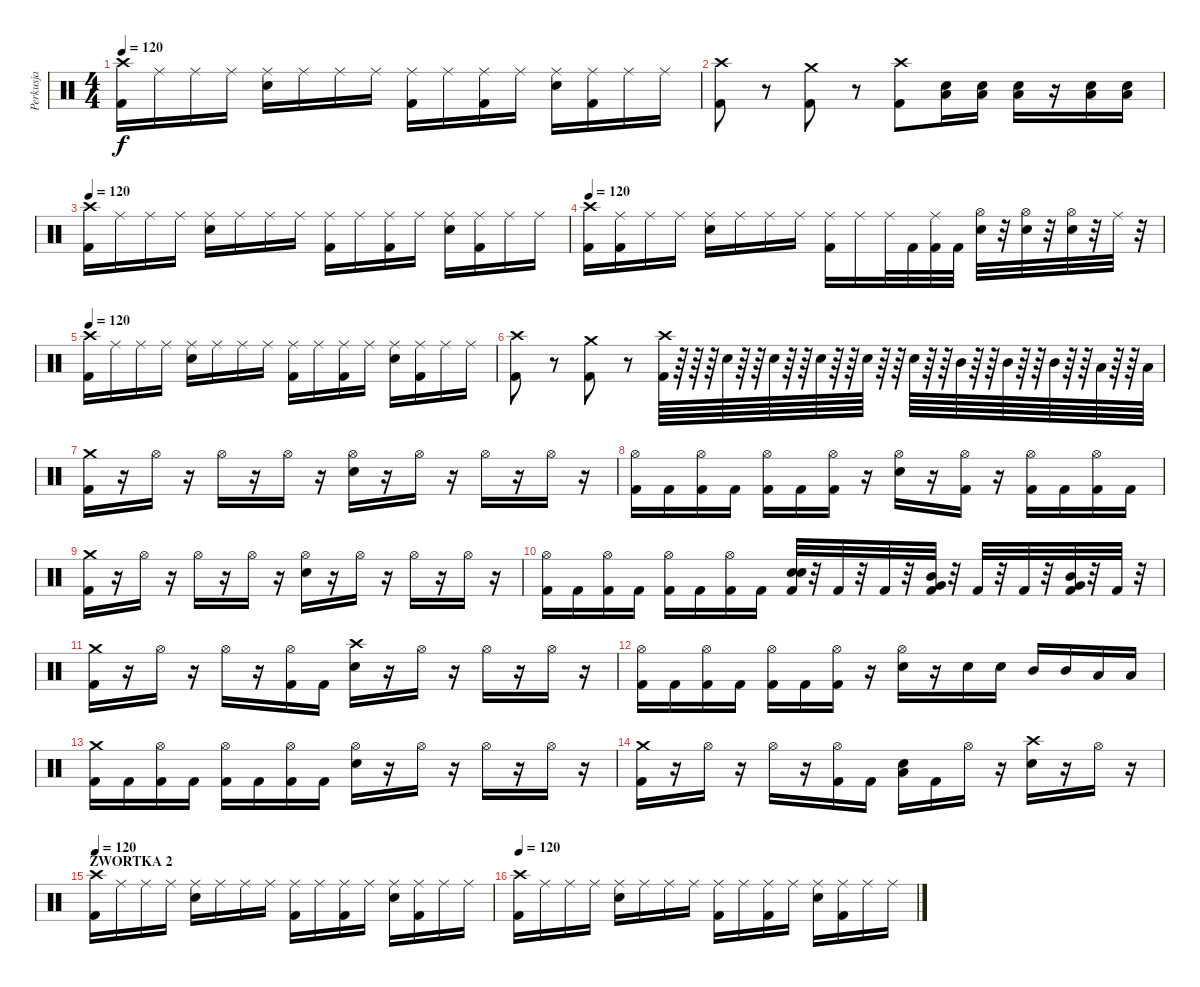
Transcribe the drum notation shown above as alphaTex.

\track ("Perkusja" "Perkusja") {instrument percussion}
\staff {score}
\articulation defaults
\ts (4 4)
\tempo 120
\clef neutral
\ks c
("Crash high (hit)" "Kick (hit) 2").16{dy f} "Ride (middle)".16 "Ride (middle)".16 "Ride (middle)".16 ("Ride (middle)" "Snare (hit) 2").16 "Ride (middle)".16 "Ride (middle)".16 "Ride (middle)".16 ("Ride (middle)" "Kick (hit) 2").16 "Ride (middle)".16 ("Ride (middle)" "Kick (hit) 2").16 "Ride (middle)".16 ("Ride (middle)" "Snare (hit) 2").16 ("Ride (middle)" "Kick (hit) 2").16 "Ride (middle)".16 "Ride (middle)".16 |
("Crash high (hit)" "Kick (hit) 2").8 r.8 ("Crash medium (hit)" "Kick (hit) 2").8 r.8 ("Crash high (hit)" "Kick (hit) 2").8 ("Snare (hit) 2" "Low Floor Tom (hit)").16 ("Snare (hit) 2" "Low Floor Tom (hit)").16 ("Snare (hit) 2" "Low Floor Tom (hit)").16 r.16 ("Snare (hit) 2" "Low Floor Tom (hit)").16 ("Snare (hit) 2" "Low Floor Tom (hit)").16 |
\tempo 120
("Crash high (hit)" "Kick (hit) 2").16 "Ride (middle)".16 "Ride (middle)".16 "Ride (middle)".16 ("Ride (middle)" "Snare (hit) 2").16 "Ride (middle)".16 "Ride (middle)".16 "Ride (middle)".16 ("Ride (middle)" "Kick (hit) 2").16 "Ride (middle)".16 ("Ride (middle)" "Kick (hit) 2").16 "Ride (middle)".16 ("Ride (middle)" "Snare (hit) 2").16 ("Ride (middle)" "Kick (hit) 2").16 "Ride (middle)".16 "Ride (middle)".16 |
\tempo 120
("Crash high (hit)" "Kick (hit) 2").16 ("Ride (middle)" "Kick (hit) 2").16 "Ride (middle)".16 "Ride (middle)".16 ("Ride (middle)" "Snare (hit) 2").16 "Ride (middle)".16 "Ride (middle)".16 "Ride (middle)".16 ("Ride (middle)" "Kick (hit) 2").16 "Ride (middle)".16 "Ride (middle)".32 "Kick (hit) 2".32 ("Ride (middle)" "Kick (hit) 2").32 "Kick (hit) 2".32 ("Hi-Hat (open)" "Snare (hit) 2").32 r.32 ("Hi-Hat (open)" "Snare (hit) 2").32 r.32 ("Hi-Hat (open)" "Snare (hit) 2").32 r.32 "Ride (middle)".32 r.32 |
\tempo 120
("Crash high (hit)" "Kick (hit) 2").16 "Ride (middle)".16 "Ride (middle)".16 "Ride (middle)".16 ("Ride (middle)" "Snare (hit) 2").16 "Ride (middle)".16 "Ride (middle)".16 "Ride (middle)".16 ("Ride (middle)" "Kick (hit) 2").16 "Ride (middle)".16 ("Ride (middle)" "Kick (hit) 2").16 "Ride (middle)".16 ("Ride (middle)" "Snare (hit) 2").16 ("Ride (middle)" "Kick (hit) 2").16 "Ride (middle)".16 "Ride (middle)".16 |
("Crash high (hit)" "Kick (hit) 2").8 r.8 ("Crash medium (hit)" "Kick (hit) 2").8 r.8 ("Crash high (hit)" "Kick (hit) 2").64 r.64 r.64 r.64 "Snare (hit) 2".64 r.64 r.64 "Snare (hit) 2".64 r.64 r.64 "Snare (hit) 2".64 r.64 r.64 "Snare (hit) 2".64 r.64 r.64 "Snare (hit) 2".64 r.64 r.64 "Mid Tom (hit)".64 r.64 r.64 "Mid Tom (hit)".64 r.64 r.64 "Mid Tom (hit)".64 r.64 r.64 "Low Tom (hit)".64 r.64 r.64 "Low Tom (hit)".64 |
("Crash medium (hit)" "Kick (hit) 2").16 r.16 "Hi-Hat (open)".16 r.16 "Hi-Hat (open)".16 r.16 "Hi-Hat (open)".16 r.16 ("Hi-Hat (open)" "Snare (hit) 2").16 r.16 "Hi-Hat (open)".16 r.16 "Hi-Hat (open)".16 r.16 "Hi-Hat (open)".16 r.16 |
("Hi-Hat (open)" "Kick (hit) 2").16 "Kick (hit) 2".16 ("Hi-Hat (open)" "Kick (hit) 2").16 "Kick (hit) 2".16 ("Hi-Hat (open)" "Kick (hit) 2").16 "Kick (hit) 2".16 ("Hi-Hat (open)" "Kick (hit) 2").16 r.16 ("Hi-Hat (open)" "Snare (hit) 2").16 r.16 ("Hi-Hat (open)" "Kick (hit) 2").16 r.16 ("Hi-Hat (open)" "Kick (hit) 2").16 "Kick (hit) 2".16 ("Hi-Hat (open)" "Kick (hit) 2").16 "Kick (hit) 2".16 |
("Crash medium (hit)" "Kick (hit) 2").16 r.16 "Hi-Hat (open)".16 r.16 "Hi-Hat (open)".16 r.16 "Hi-Hat (open)".16 r.16 ("Hi-Hat (open)" "Snare (hit) 2").16 r.16 "Hi-Hat (open)".16 r.16 "Hi-Hat (open)".16 r.16 "Hi-Hat (open)".16 r.16 |
("Hi-Hat (open)" "Kick (hit) 2").16 "Kick (hit) 2".16 ("Hi-Hat (open)" "Kick (hit) 2").16 "Kick (hit) 2".16 ("Hi-Hat (open)" "Kick (hit) 2").16 "Kick (hit) 2".16 ("Hi-Hat (open)" "Kick (hit) 2").16 "Kick (hit) 2".16 ("Snare (hit) 2" "Snare (hit) 2" "Kick (hit) 2").32 r.32 "Kick (hit) 2".32 r.32 "Kick (hit) 2".32 r.32 ("Mid Tom (hit)" "Very Low Tom (hit)" "Kick (hit) 2").32 r.32 "Kick (hit) 2".32 r.32 "Kick (hit) 2".32 r.32 ("Mid Tom (hit)" "Very Low Tom (hit)" "Kick (hit) 2").32 r.32 "Kick (hit) 2".32 r.32 |
("Crash medium (hit)" "Kick (hit) 2").16 r.16 "Hi-Hat (open)".16 r.16 "Hi-Hat (open)".16 r.16 ("Hi-Hat (open)" "Kick (hit) 2").16 "Kick (hit) 2".16 ("Crash high (hit)" "Snare (hit) 2").16 r.16 "Hi-Hat (open)".16 r.16 "Hi-Hat (open)".16 r.16 "Hi-Hat (open)".16 r.16 |
("Hi-Hat (open)" "Kick (hit) 2").16 "Kick (hit) 2".16 ("Hi-Hat (open)" "Kick (hit) 2").16 "Kick (hit) 2".16 ("Hi-Hat (open)" "Kick (hit) 2").16 "Kick (hit) 2".16 ("Hi-Hat (open)" "Kick (hit) 2").16 r.16 ("Hi-Hat (open)" "Snare (hit) 2").16 r.16 "Snare (hit) 2".16 "Snare (hit) 2".16 "Mid Tom (hit)".16 "Mid Tom (hit)".16 "Low Tom (hit)".16 "Low Tom (hit)".16 |
("Crash medium (hit)" "Kick (hit) 2").16 "Kick (hit) 2".16 ("Hi-Hat (open)" "Kick (hit) 2").16 "Kick (hit) 2".16 ("Hi-Hat (open)" "Kick (hit) 2").16 "Kick (hit) 2".16 ("Hi-Hat (open)" "Kick (hit) 2").16 "Kick (hit) 2".16 ("Hi-Hat (open)" "Snare (hit) 2").16 r.16 "Hi-Hat (open)".16 r.16 "Hi-Hat (open)".16 r.16 "Hi-Hat (open)".16 r.16 |
("Crash medium (hit)" "Kick (hit) 2").16 r.16 "Hi-Hat (open)".16 r.16 "Hi-Hat (open)".16 r.16 ("Hi-Hat (open)" "Kick (hit) 2").16 "Kick (hit) 2".16 ("Snare (hit) 2" "Low Floor Tom (hit)").16 "Kick (hit) 2".16 "Hi-Hat (open)".16 r.16 ("Crash high (hit)" "Snare (hit) 2").16 r.16 "Hi-Hat (open)".16 r.16 |
\section ("" "ZWORTKA 2")
\tempo 120
("Crash high (hit)" "Kick (hit) 2").16 "Ride (middle)".16 "Ride (middle)".16 "Ride (middle)".16 ("Ride (middle)" "Snare (hit) 2").16 "Ride (middle)".16 "Ride (middle)".16 "Ride (middle)".16 ("Ride (middle)" "Kick (hit) 2").16 "Ride (middle)".16 ("Ride (middle)" "Kick (hit) 2").16 "Ride (middle)".16 ("Ride (middle)" "Snare (hit) 2").16 ("Ride (middle)" "Kick (hit) 2").16 "Ride (middle)".16 "Ride (middle)".16 |
\tempo 120
("Crash high (hit)" "Kick (hit) 2").16 "Ride (middle)".16 "Ride (middle)".16 "Ride (middle)".16 ("Ride (middle)" "Snare (hit) 2").16 "Ride (middle)".16 "Ride (middle)".16 "Ride (middle)".16 ("Ride (middle)" "Kick (hit) 2").16 "Ride (middle)".16 ("Ride (middle)" "Kick (hit) 2").16 "Ride (middle)".16 ("Ride (middle)" "Snare (hit) 2").16 ("Ride (middle)" "Kick (hit) 2").16 "Ride (middle)".16 "Ride (middle)".16
